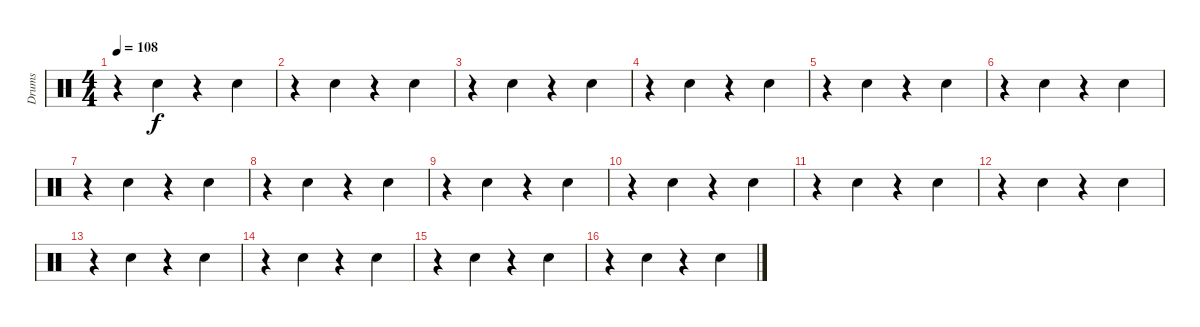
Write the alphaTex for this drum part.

\track ("Drums" "Drums") {instrument percussion}
\staff {score}
\articulation defaults
\ts (4 4)
\tempo 108
\clef neutral
\ks c
r.4{dy f} "Snare (hit) 2".4 r.4 "Snare (hit) 2".4 |
r.4 "Snare (hit) 2".4 r.4 "Snare (hit) 2".4 |
r.4 "Snare (hit) 2".4 r.4 "Snare (hit) 2".4 |
r.4 "Snare (hit) 2".4 r.4 "Snare (hit) 2".4 |
r.4 "Snare (hit) 2".4 r.4 "Snare (hit) 2".4 |
r.4 "Snare (hit) 2".4 r.4 "Snare (hit) 2".4 |
r.4 "Snare (hit) 2".4 r.4 "Snare (hit) 2".4 |
r.4 "Snare (hit) 2".4 r.4 "Snare (hit) 2".4 |
r.4 "Snare (hit) 2".4 r.4 "Snare (hit) 2".4 |
r.4 "Snare (hit) 2".4 r.4 "Snare (hit) 2".4 |
r.4 "Snare (hit) 2".4 r.4 "Snare (hit) 2".4 |
r.4 "Snare (hit) 2".4 r.4 "Snare (hit) 2".4 |
r.4 "Snare (hit) 2".4 r.4 "Snare (hit) 2".4 |
r.4 "Snare (hit) 2".4 r.4 "Snare (hit) 2".4 |
r.4 "Snare (hit) 2".4 r.4 "Snare (hit) 2".4 |
r.4 "Snare (hit) 2".4 r.4 "Snare (hit) 2".4
